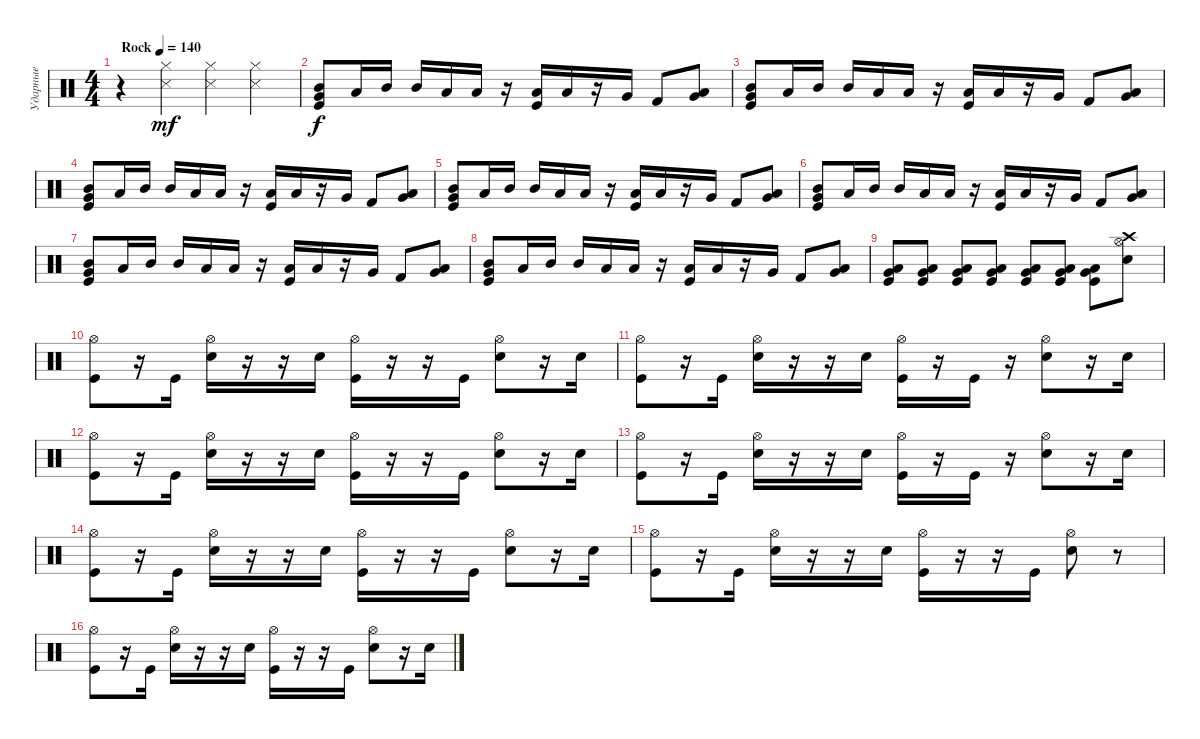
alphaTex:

\track ("Ударные" "Ударные") {instrument percussion}
\staff {score}
\articulation defaults
\ts (4 4)
\tempo (140 "Rock")
\clef neutral
\ks c
r.4{dy mf} ("Hi-Hat (closed)" "Snare (side stick) 3").4 ("Hi-Hat (closed)" "Snare (side stick) 3").4 ("Hi-Hat (closed)" "Snare (side stick) 3").4 |
("Mid Tom (hit)" "Very Low Tom (hit)" "Kick (hit)").8{dy f} "Low Tom (hit)".16 "Mid Tom (hit)".16 "Mid Tom (hit)".16 "Low Tom (hit)".16 "Low Tom (hit)".16 r.16 ("Low Tom (hit)" "Kick (hit)").16 "Low Tom (hit)".16 r.16 "Very Low Tom (hit)".16 "Kick (hit) 2".8 ("Very Low Tom (hit)" "Low Floor Tom (hit)").8 |
("Mid Tom (hit)" "Very Low Tom (hit)" "Kick (hit)").8 "Low Tom (hit)".16 "Mid Tom (hit)".16 "Mid Tom (hit)".16 "Low Tom (hit)".16 "Low Tom (hit)".16 r.16 ("Low Tom (hit)" "Kick (hit)").16 "Low Tom (hit)".16 r.16 "Very Low Tom (hit)".16 "Kick (hit) 2".8 ("Very Low Tom (hit)" "Low Floor Tom (hit)").8 |
("Mid Tom (hit)" "Very Low Tom (hit)" "Kick (hit)").8 "Low Tom (hit)".16 "Mid Tom (hit)".16 "Mid Tom (hit)".16 "Low Tom (hit)".16 "Low Tom (hit)".16 r.16 ("Low Tom (hit)" "Kick (hit)").16 "Low Tom (hit)".16 r.16 "Very Low Tom (hit)".16 "Kick (hit) 2".8 ("Very Low Tom (hit)" "Low Floor Tom (hit)").8 |
("Mid Tom (hit)" "Very Low Tom (hit)" "Kick (hit)").8 "Low Tom (hit)".16 "Mid Tom (hit)".16 "Mid Tom (hit)".16 "Low Tom (hit)".16 "Low Tom (hit)".16 r.16 ("Low Tom (hit)" "Kick (hit)").16 "Low Tom (hit)".16 r.16 "Very Low Tom (hit)".16 "Kick (hit) 2".8 ("Very Low Tom (hit)" "Low Floor Tom (hit)").8 |
("Mid Tom (hit)" "Very Low Tom (hit)" "Kick (hit)").8 "Low Tom (hit)".16 "Mid Tom (hit)".16 "Mid Tom (hit)".16 "Low Tom (hit)".16 "Low Tom (hit)".16 r.16 ("Low Tom (hit)" "Kick (hit)").16 "Low Tom (hit)".16 r.16 "Very Low Tom (hit)".16 "Kick (hit) 2".8 ("Very Low Tom (hit)" "Low Floor Tom (hit)").8 |
("Mid Tom (hit)" "Very Low Tom (hit)" "Kick (hit)").8 "Low Tom (hit)".16 "Mid Tom (hit)".16 "Mid Tom (hit)".16 "Low Tom (hit)".16 "Low Tom (hit)".16 r.16 ("Low Tom (hit)" "Kick (hit)").16 "Low Tom (hit)".16 r.16 "Very Low Tom (hit)".16 "Kick (hit) 2".8 ("Very Low Tom (hit)" "Low Floor Tom (hit)").8 |
("Mid Tom (hit)" "Very Low Tom (hit)" "Kick (hit)").8 "Low Tom (hit)".16 "Mid Tom (hit)".16 "Mid Tom (hit)".16 "Low Tom (hit)".16 "Low Tom (hit)".16 r.16 ("Low Tom (hit)" "Kick (hit)").16 "Low Tom (hit)".16 r.16 "Very Low Tom (hit)".16 "Kick (hit) 2".8 ("Very Low Tom (hit)" "Low Floor Tom (hit)").8 |
("Very Low Tom (hit)" "Low Tom (hit)" "Kick (hit)").8 ("Very Low Tom (hit)" "Low Tom (hit)" "Kick (hit)").8 ("Very Low Tom (hit)" "Low Tom (hit)" "Kick (hit)").8 ("Very Low Tom (hit)" "Low Tom (hit)" "Kick (hit)").8 ("Very Low Tom (hit)" "Low Tom (hit)" "Kick (hit)").8 ("Very Low Tom (hit)" "Low Tom (hit)" "Kick (hit)").8 ("Very Low Tom (hit)" "Low Tom (hit)" "Kick (hit)").8 ("Crash high (hit)" "Hi-Hat (open)" "Snare (hit) 2").8 |
("Hi-Hat (open)" "Kick (hit)").8 r.16 "Kick (hit)".16 ("Hi-Hat (open)" "Snare (hit) 2").16 r.16 r.16 "Snare (hit) 2".16 ("Hi-Hat (open)" "Kick (hit)").16 r.16 r.16 "Kick (hit)".16 ("Hi-Hat (open)" "Snare (hit) 2").8 r.16 "Snare (hit) 2".16 |
("Hi-Hat (open)" "Kick (hit)").8 r.16 "Kick (hit)".16 ("Hi-Hat (open)" "Snare (hit) 2").16 r.16 r.16 "Snare (hit) 2".16 ("Hi-Hat (open)" "Kick (hit)").16 r.16 "Kick (hit)".16 r.16 ("Hi-Hat (open)" "Snare (hit) 2").8 r.16 "Snare (hit) 2".16 |
("Hi-Hat (open)" "Kick (hit)").8 r.16 "Kick (hit)".16 ("Hi-Hat (open)" "Snare (hit) 2").16 r.16 r.16 "Snare (hit) 2".16 ("Hi-Hat (open)" "Kick (hit)").16 r.16 r.16 "Kick (hit)".16 ("Hi-Hat (open)" "Snare (hit) 2").8 r.16 "Snare (hit) 2".16 |
("Hi-Hat (open)" "Kick (hit)").8 r.16 "Kick (hit)".16 ("Hi-Hat (open)" "Snare (hit) 2").16 r.16 r.16 "Snare (hit) 2".16 ("Hi-Hat (open)" "Kick (hit)").16 r.16 "Kick (hit)".16 r.16 ("Hi-Hat (open)" "Snare (hit) 2").8 r.16 "Snare (hit) 2".16 |
("Hi-Hat (open)" "Kick (hit)").8 r.16 "Kick (hit)".16 ("Hi-Hat (open)" "Snare (hit) 2").16 r.16 r.16 "Snare (hit) 2".16 ("Hi-Hat (open)" "Kick (hit)").16 r.16 r.16 "Kick (hit)".16 ("Hi-Hat (open)" "Snare (hit) 2").8 r.16 "Snare (hit) 2".16 |
("Hi-Hat (open)" "Kick (hit)").8 r.16 "Kick (hit)".16 ("Hi-Hat (open)" "Snare (hit) 2").16 r.16 r.16 "Snare (hit) 2".16 ("Hi-Hat (open)" "Kick (hit)").16 r.16 r.16 "Kick (hit)".16 ("Hi-Hat (open)" "Snare (hit) 2").8 r.8 |
("Hi-Hat (open)" "Kick (hit)").8 r.16 "Kick (hit)".16 ("Hi-Hat (open)" "Snare (hit) 2").16 r.16 r.16 "Snare (hit) 2".16 ("Hi-Hat (open)" "Kick (hit)").16 r.16 r.16 "Kick (hit)".16 ("Hi-Hat (open)" "Snare (hit) 2").8 r.16 "Snare (hit) 2".16
